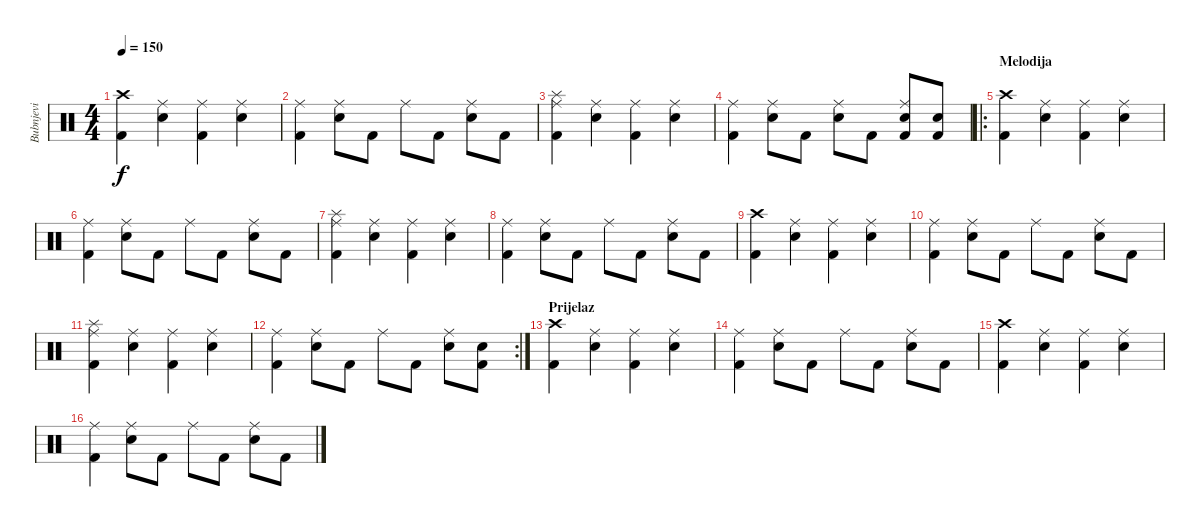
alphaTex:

\track ("Bubnjevi" "Bubnjevi") {instrument percussion}
\staff {score}
\articulation defaults
\ts (4 4)
\tempo 150
\clef neutral
\ks c
("Crash high (hit)" "Kick (hit) 2").4{dy f} ("Ride (middle)" "Snare (hit) 2").4 ("Ride (middle)" "Kick (hit) 2").4 ("Ride (middle)" "Snare (hit) 2").4 |
("Ride (middle)" "Kick (hit) 2").4 ("Ride (middle)" "Snare (hit) 2").8 "Kick (hit) 2".8 "Ride (middle)".8 "Kick (hit) 2".8 ("Ride (middle)" "Snare (hit) 2").8 "Kick (hit) 2".8 |
("Splash (hit)" "Ride (middle)" "Kick (hit) 2").4 ("Ride (middle)" "Snare (hit) 2").4 ("Ride (middle)" "Kick (hit) 2").4 ("Ride (middle)" "Snare (hit) 2").4 |
("Ride (middle)" "Kick (hit) 2").4 ("Ride (middle)" "Snare (hit) 2").8 "Kick (hit) 2".8 ("Ride (middle)" "Snare (hit) 2").8 "Kick (hit) 2".8 ("Ride (middle)" "Snare (hit) 2" "Kick (hit) 2").8 ("Snare (hit) 2" "Kick (hit) 2").8 |
\ro
\section ("" "Melodija")
("Crash high (hit)" "Kick (hit) 2").4 ("Ride (middle)" "Snare (hit) 2").4 ("Ride (middle)" "Kick (hit) 2").4 ("Ride (middle)" "Snare (hit) 2").4 |
("Ride (middle)" "Kick (hit) 2").4 ("Ride (middle)" "Snare (hit) 2").8 "Kick (hit) 2".8 "Ride (middle)".8 "Kick (hit) 2".8 ("Ride (middle)" "Snare (hit) 2").8 "Kick (hit) 2".8 |
("Splash (hit)" "Ride (middle)" "Kick (hit) 2").4 ("Ride (middle)" "Snare (hit) 2").4 ("Ride (middle)" "Kick (hit) 2").4 ("Ride (middle)" "Snare (hit) 2").4 |
("Ride (middle)" "Kick (hit) 2").4 ("Ride (middle)" "Snare (hit) 2").8 "Kick (hit) 2".8 "Ride (middle)".8 "Kick (hit) 2".8 ("Ride (middle)" "Snare (hit) 2").8 "Kick (hit) 2".8 |
("Crash high (hit)" "Kick (hit) 2").4 ("Ride (middle)" "Snare (hit) 2").4 ("Ride (middle)" "Kick (hit) 2").4 ("Ride (middle)" "Snare (hit) 2").4 |
("Ride (middle)" "Kick (hit) 2").4 ("Ride (middle)" "Snare (hit) 2").8 "Kick (hit) 2".8 "Ride (middle)".8 "Kick (hit) 2".8 ("Ride (middle)" "Snare (hit) 2").8 "Kick (hit) 2".8 |
("Splash (hit)" "Ride (middle)" "Kick (hit) 2").4 ("Ride (middle)" "Snare (hit) 2").4 ("Ride (middle)" "Kick (hit) 2").4 ("Ride (middle)" "Snare (hit) 2").4 |
\rc 2
("Ride (middle)" "Kick (hit) 2").4 ("Ride (middle)" "Snare (hit) 2").8 "Kick (hit) 2".8 "Ride (middle)".8 "Kick (hit) 2".8 ("Ride (middle)" "Snare (hit) 2").8 ("Snare (hit) 2" "Kick (hit) 2").8 |
\section ("" "Prijelaz")
("Crash high (hit)" "Kick (hit) 2").4 ("Ride (middle)" "Snare (hit) 2").4 ("Ride (middle)" "Kick (hit) 2").4 ("Ride (middle)" "Snare (hit) 2").4 |
("Ride (middle)" "Kick (hit) 2").4 ("Ride (middle)" "Snare (hit) 2").8 "Kick (hit) 2".8 "Ride (middle)".8 "Kick (hit) 2".8 ("Ride (middle)" "Snare (hit) 2").8 "Kick (hit) 2".8 |
("Crash high (hit)" "Kick (hit) 2").4 ("Ride (middle)" "Snare (hit) 2").4 ("Ride (middle)" "Kick (hit) 2").4 ("Ride (middle)" "Snare (hit) 2").4 |
("Ride (middle)" "Kick (hit) 2").4 ("Ride (middle)" "Snare (hit) 2").8 "Kick (hit) 2".8 "Ride (middle)".8 "Kick (hit) 2".8 ("Ride (middle)" "Snare (hit) 2").8 "Kick (hit) 2".8
